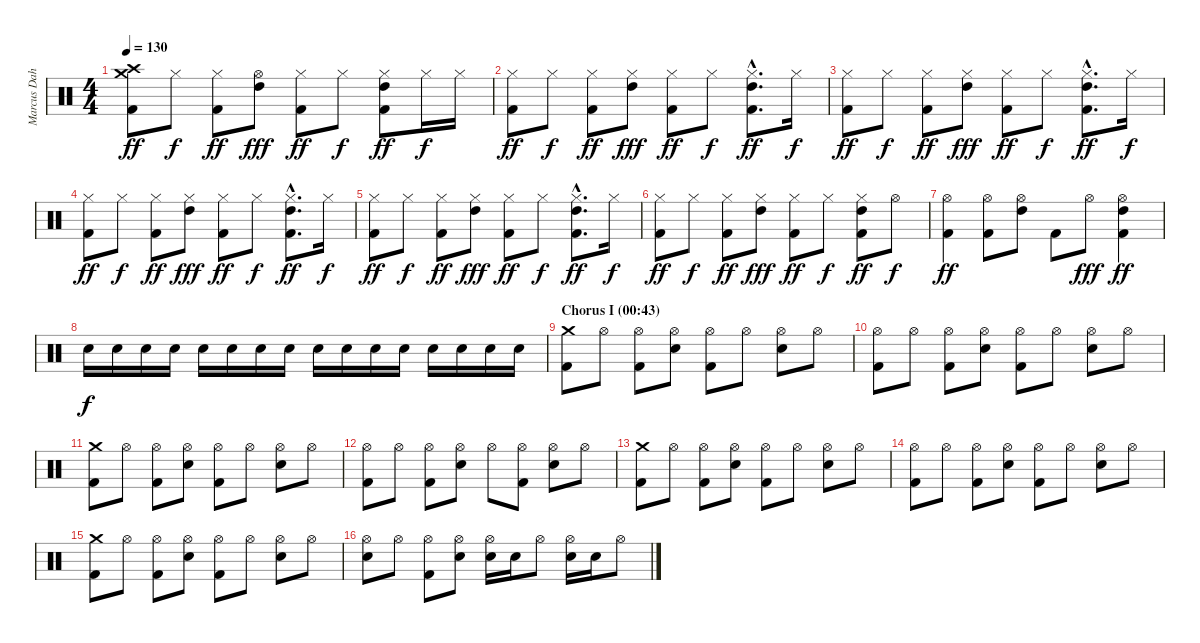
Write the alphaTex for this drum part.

\track ("Marcus Dahlström" "Marcus Dah") {instrument percussion}
\staff {score}
\articulation defaults
\ts (4 4)
\tempo 130
\clef neutral
\ks c
("Crash high (hit)" "Crash medium (hit)" "Kick (hit) 2").8{dy ff} "Hi-Hat (closed)".8{dy f} ("Hi-Hat (closed)" "Kick (hit) 2").8{dy ff} ("High Tom (hit)" "Hi-Hat (open)").8{dy fff} ("Hi-Hat (closed)" "Kick (hit) 2").8{dy ff} "Hi-Hat (closed)".8{dy f} ("High Tom (hit)" "Hi-Hat (closed)" "Kick (hit) 2").8{dy ff} "Hi-Hat (closed)".16{dy f} "Hi-Hat (closed)".16 |
("Hi-Hat (closed)" "Kick (hit) 2").8{dy ff} "Hi-Hat (closed)".8{dy f} ("Hi-Hat (closed)" "Kick (hit) 2").8{dy ff} ("High Tom (hit)" "Hi-Hat (closed)").8{dy fff} ("Hi-Hat (closed)" "Kick (hit) 2").8{dy ff} "Hi-Hat (closed)".8{dy f} ("High Tom (hit)"{hac} "Hi-Hat (closed)"{hac} "Kick (hit) 2"{hac}).8{d dy ff} "Hi-Hat (closed)".16{dy f} |
("Hi-Hat (closed)" "Kick (hit) 2").8{dy ff} "Hi-Hat (closed)".8{dy f} ("Hi-Hat (closed)" "Kick (hit) 2").8{dy ff} ("High Tom (hit)" "Hi-Hat (closed)").8{dy fff} ("Hi-Hat (closed)" "Kick (hit) 2").8{dy ff} "Hi-Hat (closed)".8{dy f} ("High Tom (hit)"{hac} "Hi-Hat (closed)"{hac} "Kick (hit) 2"{hac}).8{d dy ff} "Hi-Hat (closed)".16{dy f} |
("Hi-Hat (closed)" "Kick (hit) 2").8{dy ff} "Hi-Hat (closed)".8{dy f} ("Hi-Hat (closed)" "Kick (hit) 2").8{dy ff} ("High Tom (hit)" "Hi-Hat (closed)").8{dy fff} ("Hi-Hat (closed)" "Kick (hit) 2").8{dy ff} "Hi-Hat (closed)".8{dy f} ("High Tom (hit)"{hac} "Hi-Hat (closed)"{hac} "Kick (hit) 2"{hac}).8{d dy ff} "Hi-Hat (closed)".16{dy f} |
("Hi-Hat (closed)" "Kick (hit) 2").8{dy ff} "Hi-Hat (closed)".8{dy f} ("Hi-Hat (closed)" "Kick (hit) 2").8{dy ff} ("High Tom (hit)" "Hi-Hat (closed)").8{dy fff} ("Hi-Hat (closed)" "Kick (hit) 2").8{dy ff} "Hi-Hat (closed)".8{dy f} ("High Tom (hit)"{hac} "Hi-Hat (closed)"{hac} "Kick (hit) 2"{hac}).8{d dy ff} "Hi-Hat (closed)".16{dy f} |
("Hi-Hat (closed)" "Kick (hit) 2").8{dy ff} "Hi-Hat (closed)".8{dy f} ("Hi-Hat (closed)" "Kick (hit) 2").8{dy ff} ("High Tom (hit)" "Hi-Hat (closed)").8{dy fff} ("Hi-Hat (closed)" "Kick (hit) 2").8{dy ff} "Hi-Hat (closed)".8{dy f} ("High Tom (hit)" "Hi-Hat (closed)" "Kick (hit) 2").8{dy ff} "Hi-Hat (open)".8{dy f} |
("Hi-Hat (open)" "Kick (hit) 2").4{dy ff} ("Hi-Hat (open)" "Kick (hit) 2").8 ("High Tom (hit)" "Hi-Hat (open)").8 "Kick (hit) 2".8 "Hi-Hat (open)".8{dy fff} ("High Tom (hit)" "Hi-Hat (open)" "Kick (hit) 2").4{dy ff} |
"Electric Snare (hit)".16{dy f} "Electric Snare (hit)".16 "Electric Snare (hit)".16 "Electric Snare (hit)".16 "Electric Snare (hit)".16 "Electric Snare (hit)".16 "Electric Snare (hit)".16 "Electric Snare (hit)".16 "Electric Snare (hit)".16 "Electric Snare (hit)".16 "Electric Snare (hit)".16 "Electric Snare (hit)".16 "Electric Snare (hit)".16 "Electric Snare (hit)".16 "Electric Snare (hit)".16 "Electric Snare (hit)".16 |
\section ("" "Chorus I (00:43)")
("Crash medium (hit)" "Kick (hit) 2").8 "Hi-Hat (open)".8 ("Hi-Hat (open)" "Kick (hit) 2").8 ("Hi-Hat (open)" "Electric Snare (hit)").8 ("Hi-Hat (open)" "Kick (hit) 2").8 "Hi-Hat (open)".8 ("Hi-Hat (open)" "Electric Snare (hit)").8 "Hi-Hat (open)".8 |
("Hi-Hat (open)" "Kick (hit) 2").8 "Hi-Hat (open)".8 ("Hi-Hat (open)" "Kick (hit) 2").8 ("Hi-Hat (open)" "Electric Snare (hit)").8 ("Hi-Hat (open)" "Kick (hit) 2").8 "Hi-Hat (open)".8 ("Hi-Hat (open)" "Electric Snare (hit)").8 "Hi-Hat (open)".8 |
("Crash medium (hit)" "Kick (hit) 2").8 "Hi-Hat (open)".8 ("Hi-Hat (open)" "Kick (hit) 2").8 ("Hi-Hat (open)" "Electric Snare (hit)").8 ("Hi-Hat (open)" "Kick (hit) 2").8 "Hi-Hat (open)".8 ("Hi-Hat (open)" "Electric Snare (hit)").8 "Hi-Hat (open)".8 |
("Hi-Hat (open)" "Kick (hit) 2").8 "Hi-Hat (open)".8 ("Hi-Hat (open)" "Kick (hit) 2").8 ("Hi-Hat (open)" "Electric Snare (hit)").8 "Hi-Hat (open)".8 ("Hi-Hat (open)" "Kick (hit) 2").8 ("Hi-Hat (open)" "Electric Snare (hit)").8 "Hi-Hat (open)".8 |
("Crash medium (hit)" "Kick (hit) 2").8 "Hi-Hat (open)".8 ("Hi-Hat (open)" "Kick (hit) 2").8 ("Hi-Hat (open)" "Electric Snare (hit)").8 ("Hi-Hat (open)" "Kick (hit) 2").8 "Hi-Hat (open)".8 ("Hi-Hat (open)" "Electric Snare (hit)").8 "Hi-Hat (open)".8 |
("Hi-Hat (open)" "Kick (hit) 2").8 "Hi-Hat (open)".8 ("Hi-Hat (open)" "Kick (hit) 2").8 ("Hi-Hat (open)" "Electric Snare (hit)").8 ("Hi-Hat (open)" "Kick (hit) 2").8 "Hi-Hat (open)".8 ("Hi-Hat (open)" "Electric Snare (hit)").8 "Hi-Hat (open)".8 |
("Crash medium (hit)" "Kick (hit) 2").8 "Hi-Hat (open)".8 ("Hi-Hat (open)" "Kick (hit) 2").8 ("Hi-Hat (open)" "Electric Snare (hit)").8 ("Hi-Hat (open)" "Kick (hit) 2").8 "Hi-Hat (open)".8 ("Hi-Hat (open)" "Electric Snare (hit)").8 "Hi-Hat (open)".8 |
("Hi-Hat (open)" "Electric Snare (hit)").8 "Hi-Hat (open)".8 ("Hi-Hat (open)" "Kick (hit) 2").8 ("Hi-Hat (open)" "Electric Snare (hit)").8 ("Hi-Hat (open)" "Electric Snare (hit)").16 "Electric Snare (hit)".16 "Hi-Hat (open)".8 ("Hi-Hat (open)" "Electric Snare (hit)").16 "Electric Snare (hit)".16 "Hi-Hat (open)".8
